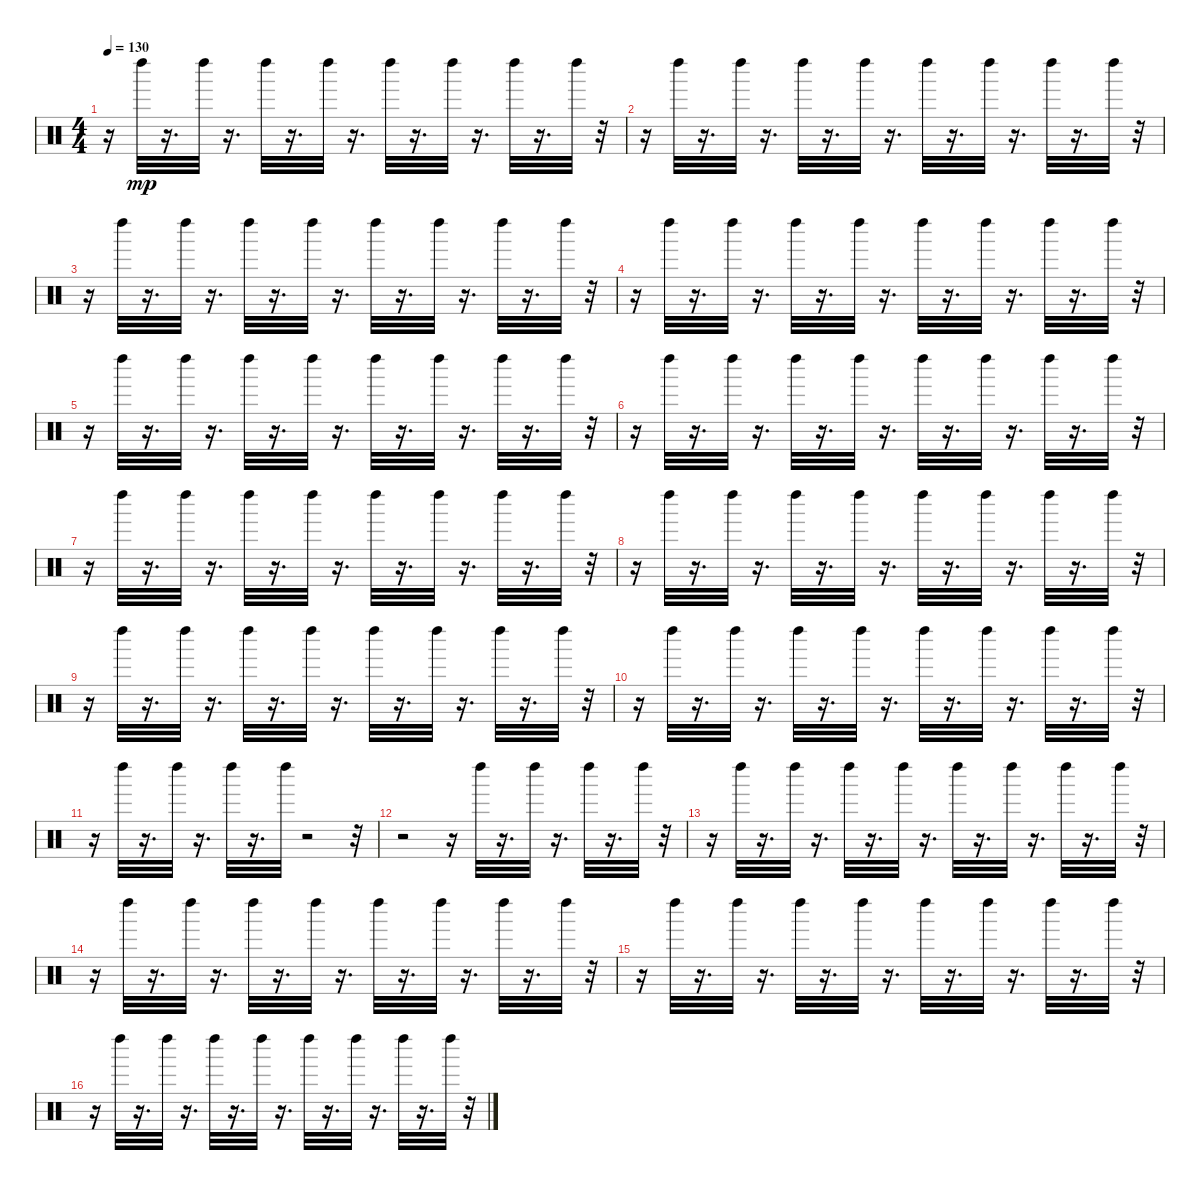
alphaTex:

\track "" {instrument percussion}
\staff {score}
\articulation defaults
\ts (4 4)
\tempo 130
\clef neutral
\ks c
r.16{dy mp} "Left Maraca (hit)".32 r.16{d} "Left Maraca (hit)".32 r.16{d} "Left Maraca (hit)".32 r.16{d} "Left Maraca (hit)".32 r.16{d} "Left Maraca (hit)".32 r.16{d} "Left Maraca (hit)".32 r.16{d} "Left Maraca (hit)".32 r.16{d} "Left Maraca (hit)".32 r.32 |
r.16 "Left Maraca (hit)".32 r.16{d} "Left Maraca (hit)".32 r.16{d} "Left Maraca (hit)".32 r.16{d} "Left Maraca (hit)".32 r.16{d} "Left Maraca (hit)".32 r.16{d} "Left Maraca (hit)".32 r.16{d} "Left Maraca (hit)".32 r.16{d} "Left Maraca (hit)".32 r.32 |
r.16 "Left Maraca (hit)".32 r.16{d} "Left Maraca (hit)".32 r.16{d} "Left Maraca (hit)".32 r.16{d} "Left Maraca (hit)".32 r.16{d} "Left Maraca (hit)".32 r.16{d} "Left Maraca (hit)".32 r.16{d} "Left Maraca (hit)".32 r.16{d} "Left Maraca (hit)".32 r.32 |
r.16 "Left Maraca (hit)".32 r.16{d} "Left Maraca (hit)".32 r.16{d} "Left Maraca (hit)".32 r.16{d} "Left Maraca (hit)".32 r.16{d} "Left Maraca (hit)".32 r.16{d} "Left Maraca (hit)".32 r.16{d} "Left Maraca (hit)".32 r.16{d} "Left Maraca (hit)".32 r.32 |
r.16 "Left Maraca (hit)".32 r.16{d} "Left Maraca (hit)".32 r.16{d} "Left Maraca (hit)".32 r.16{d} "Left Maraca (hit)".32 r.16{d} "Left Maraca (hit)".32 r.16{d} "Left Maraca (hit)".32 r.16{d} "Left Maraca (hit)".32 r.16{d} "Left Maraca (hit)".32 r.32 |
r.16 "Left Maraca (hit)".32 r.16{d} "Left Maraca (hit)".32 r.16{d} "Left Maraca (hit)".32 r.16{d} "Left Maraca (hit)".32 r.16{d} "Left Maraca (hit)".32 r.16{d} "Left Maraca (hit)".32 r.16{d} "Left Maraca (hit)".32 r.16{d} "Left Maraca (hit)".32 r.32 |
r.16 "Left Maraca (hit)".32 r.16{d} "Left Maraca (hit)".32 r.16{d} "Left Maraca (hit)".32 r.16{d} "Left Maraca (hit)".32 r.16{d} "Left Maraca (hit)".32 r.16{d} "Left Maraca (hit)".32 r.16{d} "Left Maraca (hit)".32 r.16{d} "Left Maraca (hit)".32 r.32 |
r.16 "Left Maraca (hit)".32 r.16{d} "Left Maraca (hit)".32 r.16{d} "Left Maraca (hit)".32 r.16{d} "Left Maraca (hit)".32 r.16{d} "Left Maraca (hit)".32 r.16{d} "Left Maraca (hit)".32 r.16{d} "Left Maraca (hit)".32 r.16{d} "Left Maraca (hit)".32 r.32 |
r.16 "Left Maraca (hit)".32 r.16{d} "Left Maraca (hit)".32 r.16{d} "Left Maraca (hit)".32 r.16{d} "Left Maraca (hit)".32 r.16{d} "Left Maraca (hit)".32 r.16{d} "Left Maraca (hit)".32 r.16{d} "Left Maraca (hit)".32 r.16{d} "Left Maraca (hit)".32 r.32 |
r.16 "Left Maraca (hit)".32 r.16{d} "Left Maraca (hit)".32 r.16{d} "Left Maraca (hit)".32 r.16{d} "Left Maraca (hit)".32 r.16{d} "Left Maraca (hit)".32 r.16{d} "Left Maraca (hit)".32 r.16{d} "Left Maraca (hit)".32 r.16{d} "Left Maraca (hit)".32 r.32 |
r.16 "Left Maraca (hit)".32 r.16{d} "Left Maraca (hit)".32 r.16{d} "Left Maraca (hit)".32 r.16{d} "Left Maraca (hit)".32 r.2 r.32 |
r.2 r.16 "Left Maraca (hit)".32 r.16{d} "Left Maraca (hit)".32 r.16{d} "Left Maraca (hit)".32 r.16{d} "Left Maraca (hit)".32 r.32 |
r.16 "Left Maraca (hit)".32 r.16{d} "Left Maraca (hit)".32 r.16{d} "Left Maraca (hit)".32 r.16{d} "Left Maraca (hit)".32 r.16{d} "Left Maraca (hit)".32 r.16{d} "Left Maraca (hit)".32 r.16{d} "Left Maraca (hit)".32 r.16{d} "Left Maraca (hit)".32 r.32 |
r.16 "Left Maraca (hit)".32 r.16{d} "Left Maraca (hit)".32 r.16{d} "Left Maraca (hit)".32 r.16{d} "Left Maraca (hit)".32 r.16{d} "Left Maraca (hit)".32 r.16{d} "Left Maraca (hit)".32 r.16{d} "Left Maraca (hit)".32 r.16{d} "Left Maraca (hit)".32 r.32 |
r.16 "Left Maraca (hit)".32 r.16{d} "Left Maraca (hit)".32 r.16{d} "Left Maraca (hit)".32 r.16{d} "Left Maraca (hit)".32 r.16{d} "Left Maraca (hit)".32 r.16{d} "Left Maraca (hit)".32 r.16{d} "Left Maraca (hit)".32 r.16{d} "Left Maraca (hit)".32 r.32 |
r.16 "Left Maraca (hit)".32 r.16{d} "Left Maraca (hit)".32 r.16{d} "Left Maraca (hit)".32 r.16{d} "Left Maraca (hit)".32 r.16{d} "Left Maraca (hit)".32 r.16{d} "Left Maraca (hit)".32 r.16{d} "Left Maraca (hit)".32 r.16{d} "Left Maraca (hit)".32 r.32
